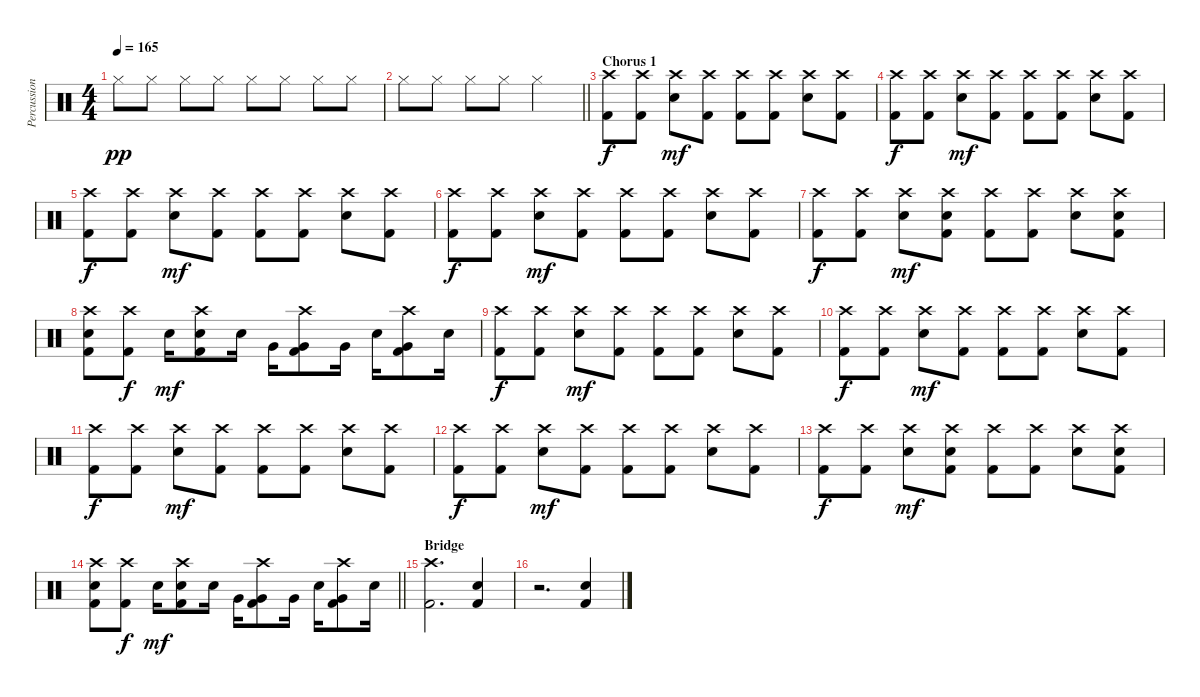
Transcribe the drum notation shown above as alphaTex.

\track ("Percussion" "Percussion") {instrument percussion}
\staff {score}
\articulation defaults
\ts (4 4)
\tempo 165
\clef neutral
\ks c "Hi-Hat (closed)".8{dy pp} "Hi-Hat (closed)".8 "Hi-Hat (closed)".8 "Hi-Hat (closed)".8 "Hi-Hat (closed)".8 "Hi-Hat (closed)".8 "Hi-Hat (closed)".8 "Hi-Hat (closed)".8
|
\barLineRight lightlight "Hi-Hat (closed)".8 "Hi-Hat (closed)".8 "Hi-Hat (closed)".8 "Hi-Hat (closed)".8 "Hi-Hat (closed)".2
|
\section ("" "Chorus 1")
("Crash high (hit)" "Kick (hit) 2").8{dy f} ("Crash high (hit)" "Kick (hit) 2").8 ("Crash high (hit)" "Snare (hit) 2").8{dy mf} ("Crash high (hit)" "Kick (hit) 2").8 ("Crash high (hit)" "Kick (hit) 2").8 ("Crash high (hit)" "Kick (hit) 2").8 ("Crash high (hit)" "Snare (hit) 2").8 ("Crash high (hit)" "Kick (hit) 2").8 |
("Crash high (hit)" "Kick (hit) 2").8{dy f} ("Crash high (hit)" "Kick (hit) 2").8 ("Crash high (hit)" "Snare (hit) 2").8{dy mf} ("Crash high (hit)" "Kick (hit) 2").8 ("Crash high (hit)" "Kick (hit) 2").8 ("Crash high (hit)" "Kick (hit) 2").8 ("Crash high (hit)" "Snare (hit) 2").8 ("Crash high (hit)" "Kick (hit) 2").8 |
("Crash high (hit)" "Kick (hit) 2").8{dy f} ("Crash high (hit)" "Kick (hit) 2").8 ("Crash high (hit)" "Snare (hit) 2").8{dy mf} ("Crash high (hit)" "Kick (hit) 2").8 ("Crash high (hit)" "Kick (hit) 2").8 ("Crash high (hit)" "Kick (hit) 2").8 ("Crash high (hit)" "Snare (hit) 2").8 ("Crash high (hit)" "Kick (hit) 2").8 |
("Crash high (hit)" "Kick (hit) 2").8{dy f} ("Crash high (hit)" "Kick (hit) 2").8 ("Crash high (hit)" "Snare (hit) 2").8{dy mf} ("Crash high (hit)" "Kick (hit) 2").8 ("Crash high (hit)" "Kick (hit) 2").8 ("Crash high (hit)" "Kick (hit) 2").8 ("Crash high (hit)" "Snare (hit) 2").8 ("Crash high (hit)" "Kick (hit) 2").8 |
("Crash high (hit)" "Kick (hit) 2").8{dy f} ("Crash high (hit)" "Kick (hit) 2").8 ("Crash high (hit)" "Snare (hit) 2").8{dy mf} ("Crash high (hit)" "Snare (hit) 2" "Kick (hit) 2").8 ("Crash high (hit)" "Kick (hit) 2").8 ("Crash high (hit)" "Kick (hit) 2").8 ("Crash high (hit)" "Snare (hit) 2").8 ("Crash high (hit)" "Snare (hit) 2" "Kick (hit) 2").8 |
("Crash high (hit)" "Snare (hit) 2" "Kick (hit) 2").8 ("Crash high (hit)" "Kick (hit) 2").8{dy f} "Snare (hit) 2".16{dy mf} ("Crash high (hit)" "Snare (hit) 2" "Kick (hit) 2").8 "Snare (hit) 2".16 "Very Low Tom (hit)".16 ("Crash high (hit)" "Very Low Tom (hit)" "Kick (hit) 2").8 "Very Low Tom (hit)".16 "Snare (hit) 2".16 ("Crash high (hit)" "Very Low Tom (hit)" "Kick (hit) 2").8 "Snare (hit) 2".16 |
("Crash high (hit)" "Kick (hit) 2").8{dy f} ("Crash high (hit)" "Kick (hit) 2").8 ("Crash high (hit)" "Snare (hit) 2").8{dy mf} ("Crash high (hit)" "Kick (hit) 2").8 ("Crash high (hit)" "Kick (hit) 2").8 ("Crash high (hit)" "Kick (hit) 2").8 ("Crash high (hit)" "Snare (hit) 2").8 ("Crash high (hit)" "Kick (hit) 2").8 |
("Crash high (hit)" "Kick (hit) 2").8{dy f} ("Crash high (hit)" "Kick (hit) 2").8 ("Crash high (hit)" "Snare (hit) 2").8{dy mf} ("Crash high (hit)" "Kick (hit) 2").8 ("Crash high (hit)" "Kick (hit) 2").8 ("Crash high (hit)" "Kick (hit) 2").8 ("Crash high (hit)" "Snare (hit) 2").8 ("Crash high (hit)" "Kick (hit) 2").8 |
("Crash high (hit)" "Kick (hit) 2").8{dy f} ("Crash high (hit)" "Kick (hit) 2").8 ("Crash high (hit)" "Snare (hit) 2").8{dy mf} ("Crash high (hit)" "Kick (hit) 2").8 ("Crash high (hit)" "Kick (hit) 2").8 ("Crash high (hit)" "Kick (hit) 2").8 ("Crash high (hit)" "Snare (hit) 2").8 ("Crash high (hit)" "Kick (hit) 2").8 |
("Crash high (hit)" "Kick (hit) 2").8{dy f} ("Crash high (hit)" "Kick (hit) 2").8 ("Crash high (hit)" "Snare (hit) 2").8{dy mf} ("Crash high (hit)" "Kick (hit) 2").8 ("Crash high (hit)" "Kick (hit) 2").8 ("Crash high (hit)" "Kick (hit) 2").8 ("Crash high (hit)" "Snare (hit) 2").8 ("Crash high (hit)" "Kick (hit) 2").8 |
("Crash high (hit)" "Kick (hit) 2").8{dy f} ("Crash high (hit)" "Kick (hit) 2").8 ("Crash high (hit)" "Snare (hit) 2").8{dy mf} ("Crash high (hit)" "Snare (hit) 2" "Kick (hit) 2").8 ("Crash high (hit)" "Kick (hit) 2").8 ("Crash high (hit)" "Kick (hit) 2").8 ("Crash high (hit)" "Snare (hit) 2").8 ("Crash high (hit)" "Snare (hit) 2" "Kick (hit) 2").8 |
\barLineRight lightlight
("Crash high (hit)" "Snare (hit) 2" "Kick (hit) 2").8 ("Crash high (hit)" "Kick (hit) 2").8{dy f} "Snare (hit) 2".16{dy mf} ("Crash high (hit)" "Snare (hit) 2" "Kick (hit) 2").8 "Snare (hit) 2".16 "Very Low Tom (hit)".16 ("Crash high (hit)" "Very Low Tom (hit)" "Kick (hit) 2").8 "Very Low Tom (hit)".16 "Snare (hit) 2".16 ("Crash high (hit)" "Very Low Tom (hit)" "Kick (hit) 2").8 "Snare (hit) 2".16 |
\section ("" "Bridge")
("Crash high (hit)" "Kick (hit) 2").2{d} ("Snare (hit) 2" "Kick (hit) 2").4 |
r.2{d} ("Snare (hit) 2" "Kick (hit) 2").4
